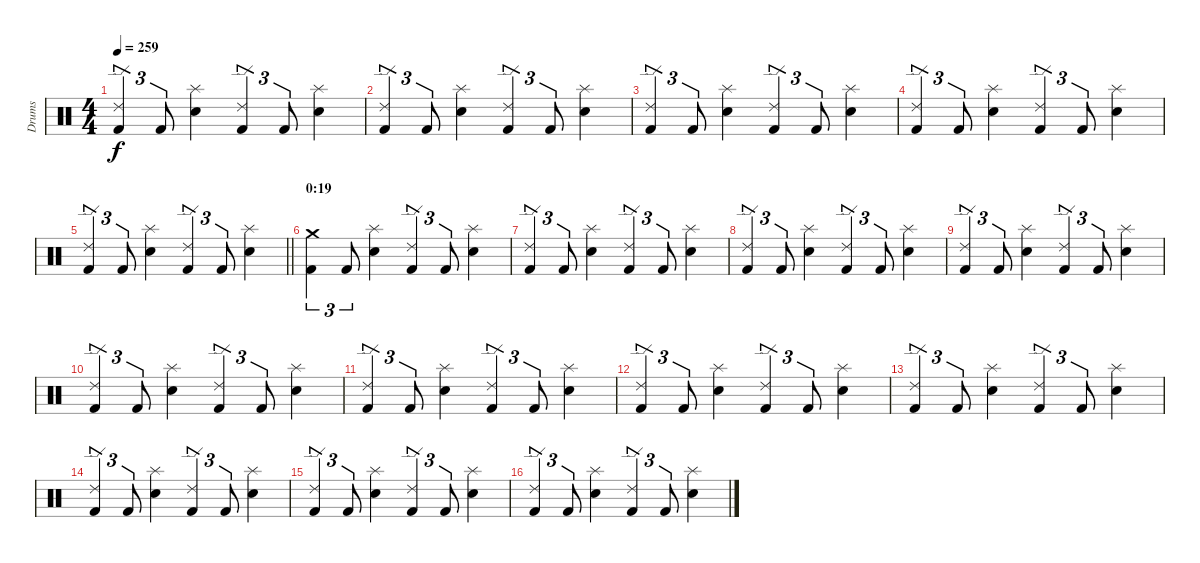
\track ("Drums" "Drums") {instrument percussion}
\staff {score}
\articulation defaults
\ts (4 4)
\tempo 259
\clef neutral
\ks c
("Ride (edge) 2" "Kick (hit) 2").4{tu (3 2) dy f} "Kick (hit) 2".8{tu (3 2)} ("Splash (hit)" "Snare (hit) 2").4 ("Ride (edge) 2" "Kick (hit) 2").4{tu (3 2)} "Kick (hit) 2".8{tu (3 2)} ("Splash (hit)" "Snare (hit) 2").4 |
("Ride (edge) 2" "Kick (hit) 2").4{tu (3 2)} "Kick (hit) 2".8{tu (3 2)} ("Splash (hit)" "Snare (hit) 2").4 ("Ride (edge) 2" "Kick (hit) 2").4{tu (3 2)} "Kick (hit) 2".8{tu (3 2)} ("Splash (hit)" "Snare (hit) 2").4 |
("Ride (edge) 2" "Kick (hit) 2").4{tu (3 2)} "Kick (hit) 2".8{tu (3 2)} ("Splash (hit)" "Snare (hit) 2").4 ("Ride (edge) 2" "Kick (hit) 2").4{tu (3 2)} "Kick (hit) 2".8{tu (3 2)} ("Splash (hit)" "Snare (hit) 2").4 |
("Ride (edge) 2" "Kick (hit) 2").4{tu (3 2)} "Kick (hit) 2".8{tu (3 2)} ("Splash (hit)" "Snare (hit) 2").4 ("Ride (edge) 2" "Kick (hit) 2").4{tu (3 2)} "Kick (hit) 2".8{tu (3 2)} ("Splash (hit)" "Snare (hit) 2").4 |
\barLineRight lightlight
("Ride (edge) 2" "Kick (hit) 2").4{tu (3 2)} "Kick (hit) 2".8{tu (3 2)} ("Splash (hit)" "Snare (hit) 2").4 ("Ride (edge) 2" "Kick (hit) 2").4{tu (3 2)} "Kick (hit) 2".8{tu (3 2)} ("Splash (hit)" "Snare (hit) 2").4 |
\section ("" "0:19")
("Crash medium (hit)" "Kick (hit) 2").4{tu (3 2)} "Kick (hit) 2".8{tu (3 2)} ("Splash (hit)" "Snare (hit) 2").4 ("Ride (edge) 2" "Kick (hit) 2").4{tu (3 2)} "Kick (hit) 2".8{tu (3 2)} ("Splash (hit)" "Snare (hit) 2").4 |
("Ride (edge) 2" "Kick (hit) 2").4{tu (3 2)} "Kick (hit) 2".8{tu (3 2)} ("Splash (hit)" "Snare (hit) 2").4 ("Ride (edge) 2" "Kick (hit) 2").4{tu (3 2)} "Kick (hit) 2".8{tu (3 2)} ("Splash (hit)" "Snare (hit) 2").4 |
("Ride (edge) 2" "Kick (hit) 2").4{tu (3 2)} "Kick (hit) 2".8{tu (3 2)} ("Splash (hit)" "Snare (hit) 2").4 ("Ride (edge) 2" "Kick (hit) 2").4{tu (3 2)} "Kick (hit) 2".8{tu (3 2)} ("Splash (hit)" "Snare (hit) 2").4 |
("Ride (edge) 2" "Kick (hit) 2").4{tu (3 2)} "Kick (hit) 2".8{tu (3 2)} ("Splash (hit)" "Snare (hit) 2").4 ("Ride (edge) 2" "Kick (hit) 2").4{tu (3 2)} "Kick (hit) 2".8{tu (3 2)} ("Splash (hit)" "Snare (hit) 2").4 |
("Ride (edge) 2" "Kick (hit) 2").4{tu (3 2)} "Kick (hit) 2".8{tu (3 2)} ("Splash (hit)" "Snare (hit) 2").4 ("Ride (edge) 2" "Kick (hit) 2").4{tu (3 2)} "Kick (hit) 2".8{tu (3 2)} ("Splash (hit)" "Snare (hit) 2").4 |
("Ride (edge) 2" "Kick (hit) 2").4{tu (3 2)} "Kick (hit) 2".8{tu (3 2)} ("Splash (hit)" "Snare (hit) 2").4 ("Ride (edge) 2" "Kick (hit) 2").4{tu (3 2)} "Kick (hit) 2".8{tu (3 2)} ("Splash (hit)" "Snare (hit) 2").4 |
("Ride (edge) 2" "Kick (hit) 2").4{tu (3 2)} "Kick (hit) 2".8{tu (3 2)} ("Splash (hit)" "Snare (hit) 2").4 ("Ride (edge) 2" "Kick (hit) 2").4{tu (3 2)} "Kick (hit) 2".8{tu (3 2)} ("Splash (hit)" "Snare (hit) 2").4 |
("Ride (edge) 2" "Kick (hit) 2").4{tu (3 2)} "Kick (hit) 2".8{tu (3 2)} ("Splash (hit)" "Snare (hit) 2").4 ("Ride (edge) 2" "Kick (hit) 2").4{tu (3 2)} "Kick (hit) 2".8{tu (3 2)} ("Splash (hit)" "Snare (hit) 2").4 |
("Ride (edge) 2" "Kick (hit) 2").4{tu (3 2)} "Kick (hit) 2".8{tu (3 2)} ("Splash (hit)" "Snare (hit) 2").4 ("Ride (edge) 2" "Kick (hit) 2").4{tu (3 2)} "Kick (hit) 2".8{tu (3 2)} ("Splash (hit)" "Snare (hit) 2").4 |
("Ride (edge) 2" "Kick (hit) 2").4{tu (3 2)} "Kick (hit) 2".8{tu (3 2)} ("Splash (hit)" "Snare (hit) 2").4 ("Ride (edge) 2" "Kick (hit) 2").4{tu (3 2)} "Kick (hit) 2".8{tu (3 2)} ("Splash (hit)" "Snare (hit) 2").4 |
("Ride (edge) 2" "Kick (hit) 2").4{tu (3 2)} "Kick (hit) 2".8{tu (3 2)} ("Splash (hit)" "Snare (hit) 2").4 ("Ride (edge) 2" "Kick (hit) 2").4{tu (3 2)} "Kick (hit) 2".8{tu (3 2)} ("Splash (hit)" "Snare (hit) 2").4
